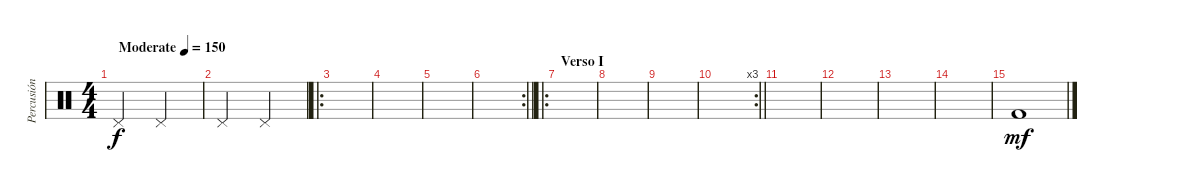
\track ("Percusión" "Percusión") {instrument percussion}
\staff {score}
\articulation defaults
\ts (4 4)
\tempo (150 "Moderate")
\clef neutral
\ks c "Pedal Hi-Hat (hit)".2{dy f} "Pedal Hi-Hat (hit)".2
|
"Pedal Hi-Hat (hit)".2 "Pedal Hi-Hat (hit)".2 |
\ro
|
|
|
\rc 2
\barLineRight lightlight
|
\ro
\section ("" "Verso I")
|
|
|
\rc 3
\barLineRight lightlight
|
|
|
|
|
"Kick (hit) 2".1{dy mf}
